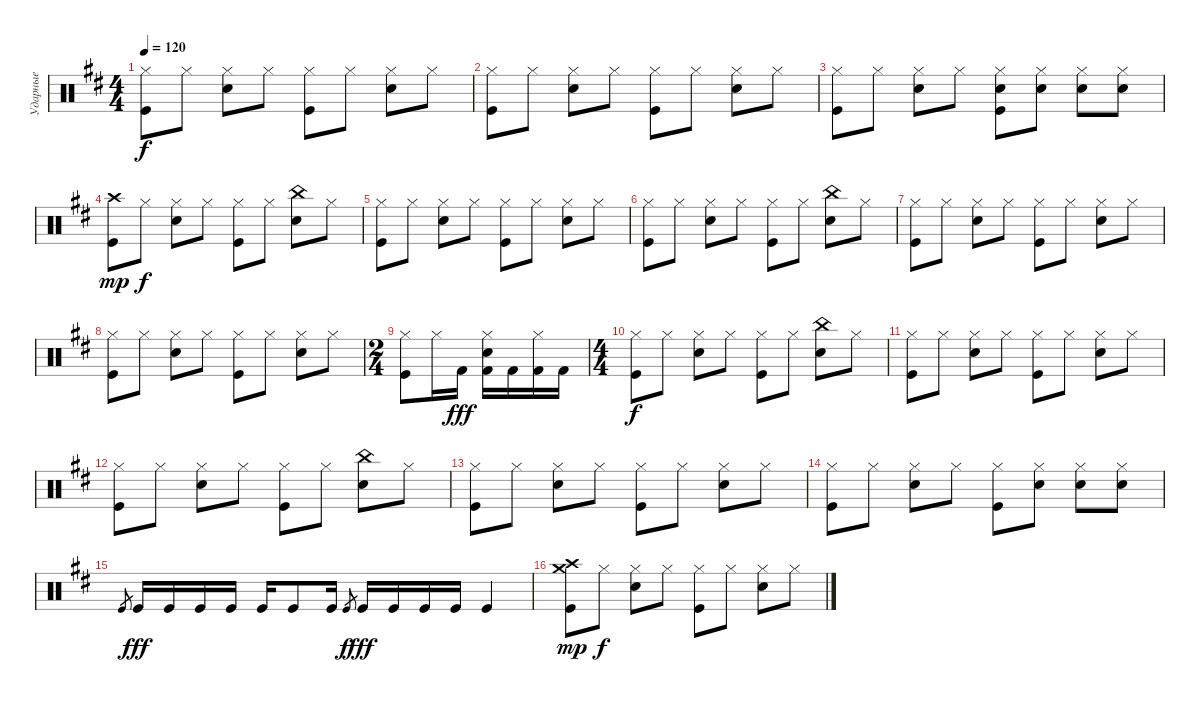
\track ("Ударные" "Ударные") {instrument percussion}
\staff {score}
\articulation defaults
\ts (4 4)
\tempo 120
\clef neutral
\ks bminor
("Hi-Hat (closed)" "Kick (hit)").8{dy f} "Hi-Hat (closed)".8 ("Hi-Hat (closed)" "Snare (hit) 2").8 "Hi-Hat (closed)".8 ("Hi-Hat (closed)" "Kick (hit)").8 "Hi-Hat (closed)".8 ("Hi-Hat (closed)" "Snare (hit) 2").8 "Hi-Hat (closed)".8 |
("Hi-Hat (closed)" "Kick (hit)").8 "Hi-Hat (closed)".8 ("Hi-Hat (closed)" "Snare (hit) 2").8 "Hi-Hat (closed)".8 ("Hi-Hat (closed)" "Kick (hit)").8 "Hi-Hat (closed)".8 ("Hi-Hat (closed)" "Snare (hit) 2").8 "Hi-Hat (closed)".8 |
("Hi-Hat (closed)" "Kick (hit)").8 "Hi-Hat (closed)".8 ("Hi-Hat (closed)" "Snare (hit) 2").8 "Hi-Hat (closed)".8 ("Hi-Hat (closed)" "Kick (hit)" "Snare (hit) 2").8 ("Hi-Hat (closed)" "Snare (hit) 2").8 ("Hi-Hat (closed)" "Snare (hit) 2").8 ("Hi-Hat (closed)" "Snare (hit) 2").8 |
\ks d
("Crash high (hit)" "Kick (hit)").8{dy mp} "Hi-Hat (closed)".8{dy f} ("Hi-Hat (closed)" "Snare (hit) 2").8 "Hi-Hat (closed)".8 ("Hi-Hat (closed)" "Kick (hit)").8 "Hi-Hat (closed)".8 ("China (hit)" "Snare (hit) 2").8{balance 14} "Hi-Hat (closed)".8{balance 8} |
("Hi-Hat (closed)" "Kick (hit)").8 "Hi-Hat (closed)".8 ("Hi-Hat (closed)" "Snare (hit) 2").8 "Hi-Hat (closed)".8 ("Hi-Hat (closed)" "Kick (hit)").8 "Hi-Hat (closed)".8 ("Hi-Hat (closed)" "Snare (hit) 2").8 "Hi-Hat (closed)".8 |
("Hi-Hat (closed)" "Kick (hit)").8 "Hi-Hat (closed)".8 ("Hi-Hat (closed)" "Snare (hit) 2").8 "Hi-Hat (closed)".8 ("Hi-Hat (closed)" "Kick (hit)").8 "Hi-Hat (closed)".8 ("China (hit)" "Snare (hit) 2").8 "Hi-Hat (closed)".8 |
("Hi-Hat (closed)" "Kick (hit)").8 "Hi-Hat (closed)".8 ("Hi-Hat (closed)" "Snare (hit) 2").8 "Hi-Hat (closed)".8 ("Hi-Hat (closed)" "Kick (hit)").8 "Hi-Hat (closed)".8 ("Hi-Hat (closed)" "Snare (hit) 2").8 "Hi-Hat (closed)".8 |
("Hi-Hat (closed)" "Kick (hit)").8 "Hi-Hat (closed)".8 ("Hi-Hat (closed)" "Snare (hit) 2").8 "Hi-Hat (closed)".8 ("Hi-Hat (closed)" "Kick (hit)").8 "Hi-Hat (closed)".8 ("Hi-Hat (closed)" "Snare (hit) 2").8 "Hi-Hat (closed)".8 |
\ts (2 4)
("Hi-Hat (closed)" "Kick (hit)").8 "Hi-Hat (closed)".16 "Kick (hit) 2".16{dy fff} ("Hi-Hat (closed)" "Snare (hit) 2" "Kick (hit) 2").16 "Kick (hit) 2".16 ("Hi-Hat (closed)" "Kick (hit) 2").16 "Kick (hit) 2".16 |
\ts (4 4)
("Hi-Hat (closed)" "Kick (hit)").8{dy f} "Hi-Hat (closed)".8 ("Hi-Hat (closed)" "Snare (hit) 2").8 "Hi-Hat (closed)".8 ("Hi-Hat (closed)" "Kick (hit)").8 "Hi-Hat (closed)".8 ("China (hit)" "Snare (hit) 2").8 "Hi-Hat (closed)".8 |
("Hi-Hat (closed)" "Kick (hit)").8 "Hi-Hat (closed)".8 ("Hi-Hat (closed)" "Snare (hit) 2").8 "Hi-Hat (closed)".8 ("Hi-Hat (closed)" "Kick (hit)").8 "Hi-Hat (closed)".8 ("Hi-Hat (closed)" "Snare (hit) 2").8 "Hi-Hat (closed)".8 |
("Hi-Hat (closed)" "Kick (hit)").8 "Hi-Hat (closed)".8 ("Hi-Hat (closed)" "Snare (hit) 2").8 "Hi-Hat (closed)".8 ("Hi-Hat (closed)" "Kick (hit)").8 "Hi-Hat (closed)".8 ("China (hit)" "Snare (hit) 2").8{balance 14} "Hi-Hat (closed)".8{balance 8} |
("Hi-Hat (closed)" "Kick (hit)").8 "Hi-Hat (closed)".8 ("Hi-Hat (closed)" "Snare (hit) 2").8 "Hi-Hat (closed)".8 ("Hi-Hat (closed)" "Kick (hit)").8 "Hi-Hat (closed)".8 ("Hi-Hat (closed)" "Snare (hit) 2").8 "Hi-Hat (closed)".8 |
("Hi-Hat (closed)" "Kick (hit)").8 "Hi-Hat (closed)".8 ("Hi-Hat (closed)" "Snare (hit) 2").8 "Hi-Hat (closed)".8 ("Hi-Hat (closed)" "Kick (hit)").8 ("Hi-Hat (closed)" "Snare (hit) 2").8 ("Hi-Hat (closed)" "Snare (hit) 2").8 ("Hi-Hat (closed)" "Snare (hit) 2").8 |
"Kick (hit)".8{gr} "Kick (hit)".16{dy fff} "Kick (hit)".16 "Kick (hit)".16 "Kick (hit)".16 "Kick (hit)".16 "Kick (hit)".8 "Kick (hit)".16 "Kick (hit)".8{gr dy f} "Kick (hit)".16{dy fff} "Kick (hit)".16 "Kick (hit)".16 "Kick (hit)".16 "Kick (hit)".4 |
\ks bminor
("Crash high (hit)" "Kick (hit)" "Crash medium (hit)").8{dy mp} "Hi-Hat (closed)".8{dy f} ("Hi-Hat (closed)" "Snare (hit) 2").8 "Hi-Hat (closed)".8 ("Hi-Hat (closed)" "Kick (hit)").8 "Hi-Hat (closed)".8 ("Hi-Hat (closed)" "Snare (hit) 2").8 "Hi-Hat (closed)".8
